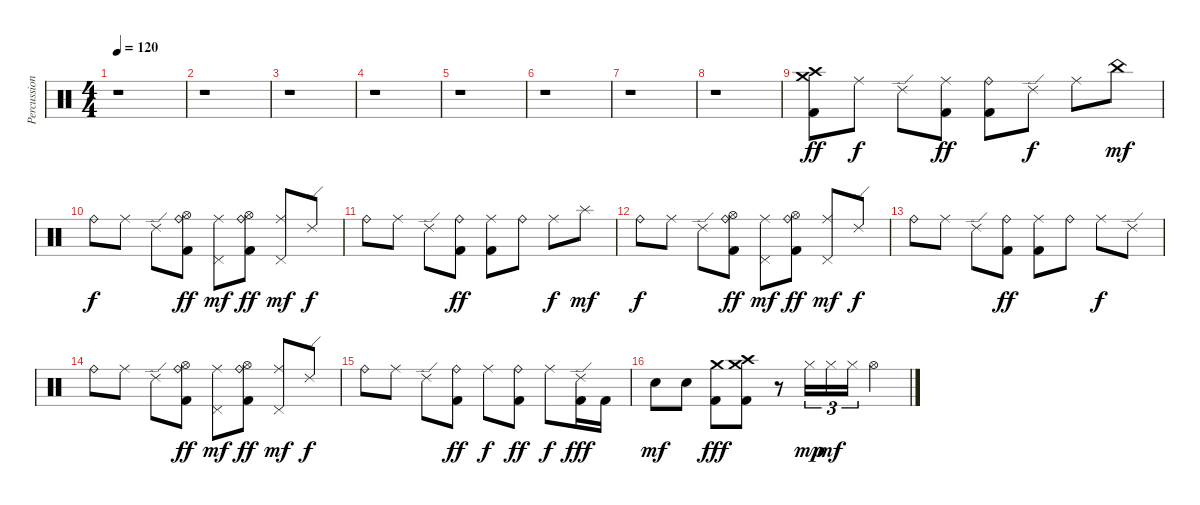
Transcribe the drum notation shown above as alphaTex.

\track ("Percussion" "Percussion") {instrument percussion}
\staff {score}
\articulation defaults
\ts (4 4)
\tempo 120
\clef neutral
\ks c
r.1{dy ff} |
r.1 |
r.1 |
r.1 |
r.1 |
r.1 |
r.1 |
r.1 |
("Crash medium (hit)" "Crash high (hit)" "Kick (hit) 2").8 "Ride (middle)".8{dy f} "Ride (edge) 2".8 ("Ride (middle)" "Kick (hit) 2").8{dy ff} ("Ride (bell)" "Kick (hit) 2").8 "Ride (edge) 2".8{dy f} "Ride (middle)".8 "China (hit)".8{dy mf} |
"Ride (bell)".8{dy f} "Ride (middle)".8 "Ride (edge) 2".8 ("Ride (bell)" "Hi-Hat (open)" "Kick (hit) 2").8{dy ff} ("Ride (middle)" "Pedal Hi-Hat (hit)").8{dy mf} ("Ride (bell)" "Hi-Hat (open)" "Kick (hit) 2").8{dy ff} ("Ride (middle)" "Pedal Hi-Hat (hit)").8{dy mf} "Ride (edge) 2".8{dy f} |
"Ride (bell)".8 "Ride (middle)".8 "Ride (edge) 2".8 ("Ride (bell)" "Kick (hit) 2").8{dy ff} ("Ride (middle)" "Kick (hit) 2").8 "Ride (bell)".8 "Ride (middle)".8{dy f} "Splash (hit)".8{dy mf} |
"Ride (bell)".8{dy f} "Ride (middle)".8 "Ride (edge) 2".8 ("Ride (bell)" "Hi-Hat (open)" "Kick (hit) 2").8{dy ff} ("Ride (middle)" "Pedal Hi-Hat (hit)").8{dy mf} ("Ride (bell)" "Hi-Hat (open)" "Kick (hit) 2").8{dy ff} ("Ride (middle)" "Pedal Hi-Hat (hit)").8{dy mf} "Ride (edge) 2".8{dy f} |
"Ride (bell)".8 "Ride (middle)".8 "Ride (edge) 2".8 ("Ride (bell)" "Kick (hit) 2").8{dy ff} ("Ride (middle)" "Kick (hit) 2").8 "Ride (bell)".8 "Ride (middle)".8{dy f} "Ride (edge) 2".8 |
"Ride (bell)".8 "Ride (middle)".8 "Ride (edge) 2".8 ("Ride (bell)" "Hi-Hat (open)" "Kick (hit) 2").8{dy ff} ("Ride (middle)" "Pedal Hi-Hat (hit)").8{dy mf} ("Ride (bell)" "Hi-Hat (open)" "Kick (hit) 2").8{dy ff} ("Ride (middle)" "Pedal Hi-Hat (hit)").8{dy mf} "Ride (edge) 2".8{dy f} |
"Ride (bell)".8 "Ride (middle)".8 "Ride (edge) 2".8 ("Ride (bell)" "Kick (hit) 2").8{dy ff} "Ride (middle)".8{dy f} ("Ride (bell)" "Kick (hit) 2").8{dy ff} "Ride (middle)".8{dy f} ("Ride (edge) 2" "Kick (hit) 2").16{dy fff} "Kick (hit) 2".16 |
"Electric Snare (hit)".8{dy mf} "Electric Snare (hit)".8 ("Crash medium (hit)" "Kick (hit) 2").8{dy fff} ("Crash medium (hit)" "Crash high (hit)" "Kick (hit) 2").8 r.8 "Hi-Hat (closed)".16{tu (3 2) dy mp} "Hi-Hat (closed)".16{tu (3 2) dy mf} "Hi-Hat (closed)".16{tu (3 2)} "Hi-Hat (open)".4
